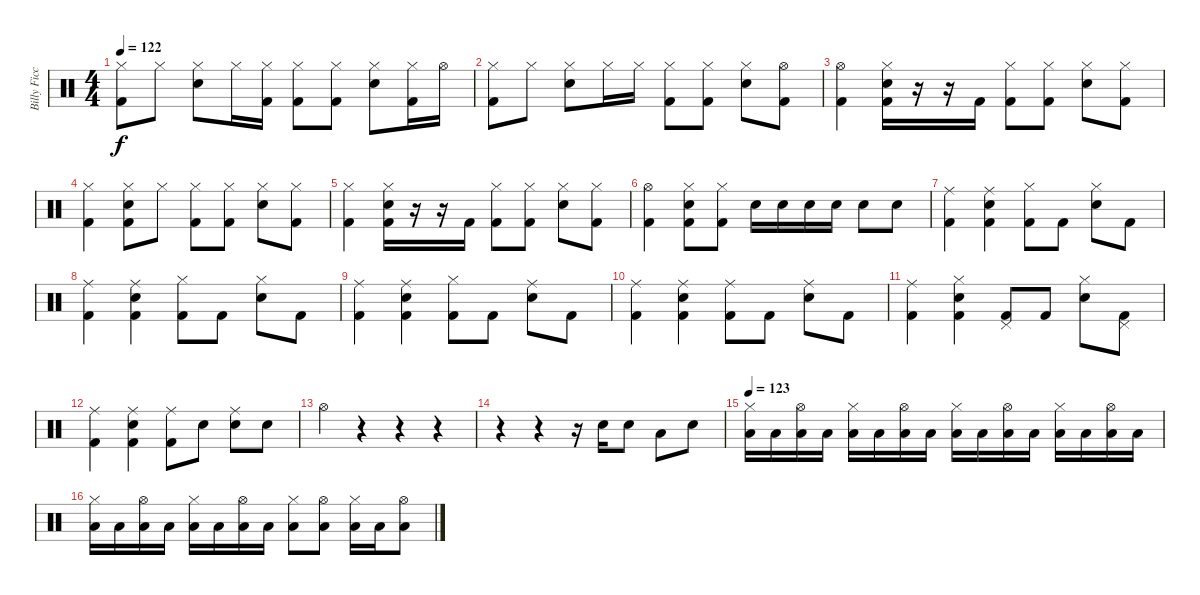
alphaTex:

\track ("Billy Ficca" "Billy Ficc") {instrument percussion}
\staff {score}
\articulation defaults
\ts (4 4)
\tempo 122
\clef neutral
\ks c
("Hi-Hat (closed)" "Kick (hit) 2").8{dy f} "Hi-Hat (closed)".8 ("Hi-Hat (closed)" "Snare (hit) 2").8 "Hi-Hat (closed)".16 ("Hi-Hat (closed)" "Kick (hit) 2").16 ("Hi-Hat (closed)" "Kick (hit) 2").8 ("Hi-Hat (closed)" "Kick (hit) 2").8 ("Hi-Hat (closed)" "Snare (hit) 2").8 ("Hi-Hat (closed)" "Kick (hit) 2").16 "Hi-Hat (open)".16 |
("Hi-Hat (closed)" "Kick (hit) 2").8 "Hi-Hat (closed)".8 ("Hi-Hat (closed)" "Snare (hit) 2").8 "Hi-Hat (closed)".16 "Hi-Hat (closed)".16 ("Hi-Hat (closed)" "Kick (hit) 2").8 ("Hi-Hat (closed)" "Kick (hit) 2").8 ("Hi-Hat (closed)" "Snare (hit) 2").8 ("Hi-Hat (open)" "Kick (hit) 2").8 |
("Hi-Hat (open)" "Kick (hit) 2").4 ("Hi-Hat (closed)" "Electric Snare (hit)" "Kick (hit) 2").16 r.16 r.16 "Kick (hit) 2".16 ("Hi-Hat (closed)" "Kick (hit) 2").8 ("Hi-Hat (closed)" "Kick (hit) 2").8 ("Hi-Hat (closed)" "Electric Snare (hit)").8 ("Hi-Hat (closed)" "Kick (hit) 2").8 |
("Hi-Hat (closed)" "Kick (hit) 2").4 ("Hi-Hat (closed)" "Electric Snare (hit)" "Kick (hit) 2").8 "Hi-Hat (closed)".8 ("Hi-Hat (closed)" "Kick (hit) 2").8 ("Hi-Hat (closed)" "Kick (hit) 2").8 ("Hi-Hat (closed)" "Electric Snare (hit)").8 ("Hi-Hat (closed)" "Kick (hit) 2").8 |
("Hi-Hat (closed)" "Kick (hit) 2").4 ("Hi-Hat (closed)" "Electric Snare (hit)" "Kick (hit) 2").16 r.16 r.16 "Kick (hit) 2".16 ("Hi-Hat (closed)" "Kick (hit) 2").8 ("Hi-Hat (closed)" "Kick (hit) 2").8 ("Hi-Hat (closed)" "Electric Snare (hit)").8 ("Hi-Hat (closed)" "Kick (hit) 2").8 |
("Hi-Hat (open)" "Kick (hit) 2").4 ("Hi-Hat (closed)" "Electric Snare (hit)" "Kick (hit) 2").8 ("Hi-Hat (closed)" "Kick (hit) 2").8 "Electric Snare (hit)".16 "Electric Snare (hit)".16 "Electric Snare (hit)".16 "Electric Snare (hit)".16 "Electric Snare (hit)".8 "Electric Snare (hit)".8 |
("Ride (middle)" "Kick (hit) 2").4 ("Ride (middle)" "Electric Snare (hit)" "Kick (hit) 2").4 ("Hi-Hat (closed)" "Kick (hit) 2").8 "Kick (hit) 2".8 ("Hi-Hat (closed)" "Electric Snare (hit)").8 "Kick (hit) 2".8 |
("Ride (middle)" "Kick (hit) 2").4 ("Ride (middle)" "Electric Snare (hit)" "Kick (hit) 2").4 ("Hi-Hat (closed)" "Kick (hit) 2").8 "Kick (hit) 2".8 ("Hi-Hat (closed)" "Electric Snare (hit)").8 "Kick (hit) 2".8 |
("Ride (middle)" "Kick (hit) 2").4 ("Ride (middle)" "Electric Snare (hit)" "Kick (hit) 2").4 ("Hi-Hat (closed)" "Kick (hit) 2").8 "Kick (hit) 2".8 ("Ride (middle)" "Electric Snare (hit)").8 "Kick (hit) 2".8 |
("Ride (middle)" "Kick (hit) 2").4 ("Ride (middle)" "Electric Snare (hit)" "Kick (hit) 2").4 ("Ride (middle)" "Kick (hit) 2").8 "Kick (hit) 2".8 ("Ride (middle)" "Electric Snare (hit)").8 "Kick (hit) 2".8 |
("Ride (middle)" "Kick (hit) 2").4 ("Hi-Hat (closed)" "Electric Snare (hit)" "Kick (hit) 2").4 ("Pedal Hi-Hat (hit)" "Kick (hit) 2").8 "Kick (hit) 2".8 ("Hi-Hat (closed)" "Electric Snare (hit)").8 ("Pedal Hi-Hat (hit)" "Kick (hit) 2").8 |
("Ride (middle)" "Kick (hit) 2").4 ("Ride (middle)" "Electric Snare (hit)" "Kick (hit) 2").4 ("Ride (middle)" "Kick (hit) 2").8 "Electric Snare (hit)".8 ("Ride (middle)" "Electric Snare (hit)").8 "Electric Snare (hit)".8 |
"Hi-Hat (open)".4 r.4 r.4 r.4 |
r.4 r.4 r.16 "Electric Snare (hit)".16 "Electric Snare (hit)".8 "Low Floor Tom (hit)".8 "Electric Snare (hit)".8 |
\tempo 123
("Hi-Hat (closed)" "Low Tom (hit)").16 "Low Tom (hit)".16 ("Hi-Hat (open)" "Low Tom (hit)").16 "Low Tom (hit)".16 ("Hi-Hat (closed)" "Low Tom (hit)").16 "Low Tom (hit)".16 ("Hi-Hat (open)" "Low Tom (hit)").16 "Low Tom (hit)".16 ("Hi-Hat (closed)" "Low Tom (hit)").16 "Low Tom (hit)".16 ("Hi-Hat (open)" "Low Tom (hit)").16 "Low Tom (hit)".16 ("Hi-Hat (closed)" "Low Tom (hit)").16 "Low Tom (hit)".16 ("Hi-Hat (open)" "Low Tom (hit)").16 "Low Tom (hit)".16 |
("Hi-Hat (closed)" "Low Tom (hit)").16 "Low Tom (hit)".16 ("Hi-Hat (open)" "Low Tom (hit)").16 "Low Tom (hit)".16 ("Hi-Hat (closed)" "Low Tom (hit)").16 "Low Tom (hit)".16 ("Hi-Hat (open)" "Low Tom (hit)").16 "Low Tom (hit)".16 ("Hi-Hat (closed)" "Low Tom (hit)").8 ("Hi-Hat (open)" "Low Tom (hit)").8 ("Hi-Hat (closed)" "Low Tom (hit)").16 "Low Tom (hit)".16 ("Hi-Hat (open)" "Low Tom (hit)").8
